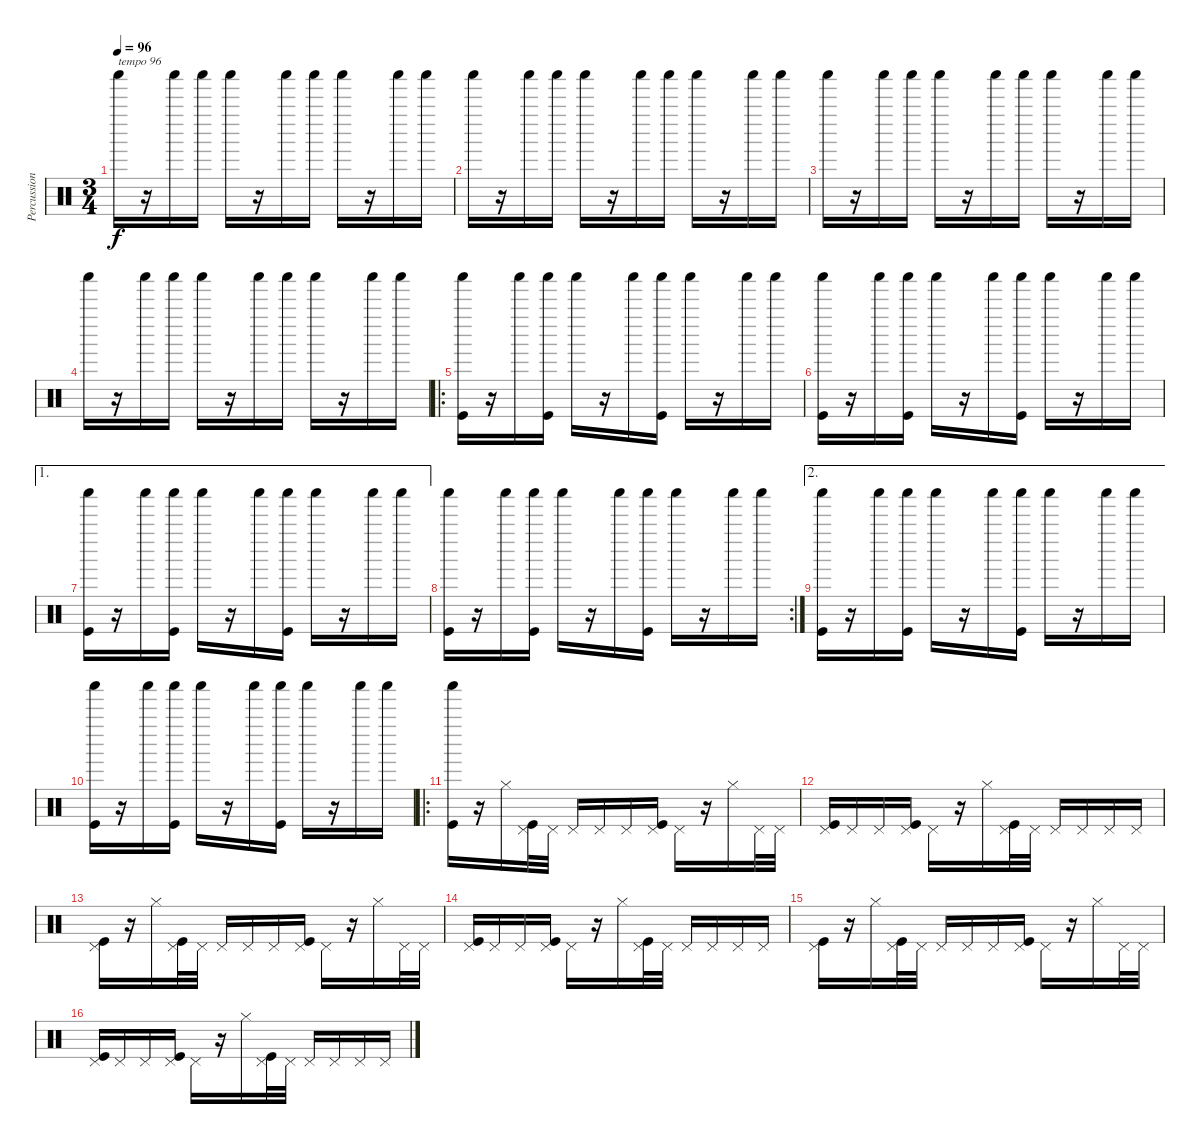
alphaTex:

\track ("Percussions" "Percussion") {instrument percussion}
\staff {score}
\articulation defaults
\ts (3 4)
\tempo 96
\clef neutral
\ks c "Shaker (hit)".16{txt "tempo 96" dy f}
r.16 "Shaker (hit)".16 "Shaker (hit)".16 "Shaker (hit)".16 r.16 "Shaker (hit)".16 "Shaker (hit)".16 "Shaker (hit)".16 r.16 "Shaker (hit)".16 "Shaker (hit)".16 |
"Shaker (hit)".16 r.16 "Shaker (hit)".16 "Shaker (hit)".16 "Shaker (hit)".16 r.16 "Shaker (hit)".16 "Shaker (hit)".16 "Shaker (hit)".16 r.16 "Shaker (hit)".16 "Shaker (hit)".16 |
"Shaker (hit)".16 r.16 "Shaker (hit)".16 "Shaker (hit)".16 "Shaker (hit)".16 r.16 "Shaker (hit)".16 "Shaker (hit)".16 "Shaker (hit)".16 r.16 "Shaker (hit)".16 "Shaker (hit)".16 |
"Shaker (hit)".16 r.16 "Shaker (hit)".16 "Shaker (hit)".16 "Shaker (hit)".16 r.16 "Shaker (hit)".16 "Shaker (hit)".16 "Shaker (hit)".16 r.16 "Shaker (hit)".16 "Shaker (hit)".16 |
\ro
("Shaker (hit)" "Kick (hit)").16 r.16 "Shaker (hit)".16 ("Shaker (hit)" "Kick (hit)").16 "Shaker (hit)".16 r.16 "Shaker (hit)".16 ("Shaker (hit)" "Kick (hit)").16 "Shaker (hit)".16 r.16 "Shaker (hit)".16 "Shaker (hit)".16 |
("Shaker (hit)" "Kick (hit)").16 r.16 "Shaker (hit)".16 ("Shaker (hit)" "Kick (hit)").16 "Shaker (hit)".16 r.16 "Shaker (hit)".16 ("Shaker (hit)" "Kick (hit)").16 "Shaker (hit)".16 r.16 "Shaker (hit)".16 "Shaker (hit)".16 |
\ae 1
("Shaker (hit)" "Kick (hit)").16 r.16 "Shaker (hit)".16 ("Shaker (hit)" "Kick (hit)").16 "Shaker (hit)".16 r.16 "Shaker (hit)".16 ("Shaker (hit)" "Kick (hit)").16 "Shaker (hit)".16 r.16 "Shaker (hit)".16 "Shaker (hit)".16 |
\rc 2
("Shaker (hit)" "Kick (hit)").16 r.16 "Shaker (hit)".16 ("Shaker (hit)" "Kick (hit)").16 "Shaker (hit)".16 r.16 "Shaker (hit)".16 ("Shaker (hit)" "Kick (hit)").16 "Shaker (hit)".16 r.16 "Shaker (hit)".16 "Shaker (hit)".16 |
\ae 2
("Shaker (hit)" "Kick (hit)").16 r.16 "Shaker (hit)".16 ("Shaker (hit)" "Kick (hit)").16 "Shaker (hit)".16 r.16 "Shaker (hit)".16 ("Shaker (hit)" "Kick (hit)").16 "Shaker (hit)".16 r.16 "Shaker (hit)".16 "Shaker (hit)".16 |
("Shaker (hit)" "Kick (hit)").16 r.16 "Shaker (hit)".16 ("Shaker (hit)" "Kick (hit)").16 "Shaker (hit)".16 r.16 "Shaker (hit)".16 ("Shaker (hit)" "Kick (hit)").16 "Shaker (hit)".16 r.16 "Shaker (hit)".16 "Shaker (hit)".16 |
\ro
("Shaker (hit)" "Kick (hit)").16 r.16 "Hi-Hat (closed)".16 ("Pedal Hi-Hat (hit)" "Kick (hit)").32 "Pedal Hi-Hat (hit)".32 "Pedal Hi-Hat (hit)".16 "Pedal Hi-Hat (hit)".16 "Pedal Hi-Hat (hit)".16 ("Pedal Hi-Hat (hit)" "Kick (hit)").16 "Pedal Hi-Hat (hit)".16 r.16 "Hi-Hat (closed)".16 "Pedal Hi-Hat (hit)".32 "Pedal Hi-Hat (hit)".32 |
("Pedal Hi-Hat (hit)" "Kick (hit)").16 "Pedal Hi-Hat (hit)".16 "Pedal Hi-Hat (hit)".16 ("Pedal Hi-Hat (hit)" "Kick (hit)").16 "Pedal Hi-Hat (hit)".16 r.16 "Hi-Hat (closed)".16 ("Pedal Hi-Hat (hit)" "Kick (hit)").32 "Pedal Hi-Hat (hit)".32 "Pedal Hi-Hat (hit)".16 "Pedal Hi-Hat (hit)".16 "Pedal Hi-Hat (hit)".16 "Pedal Hi-Hat (hit)".16 |
("Pedal Hi-Hat (hit)" "Kick (hit)").16 r.16 "Hi-Hat (closed)".16 ("Pedal Hi-Hat (hit)" "Kick (hit)").32 "Pedal Hi-Hat (hit)".32 "Pedal Hi-Hat (hit)".16 "Pedal Hi-Hat (hit)".16 "Pedal Hi-Hat (hit)".16 ("Pedal Hi-Hat (hit)" "Kick (hit)").16 "Pedal Hi-Hat (hit)".16 r.16 "Hi-Hat (closed)".16 "Pedal Hi-Hat (hit)".32 "Pedal Hi-Hat (hit)".32 |
("Pedal Hi-Hat (hit)" "Kick (hit)").16 "Pedal Hi-Hat (hit)".16 "Pedal Hi-Hat (hit)".16 ("Pedal Hi-Hat (hit)" "Kick (hit)").16 "Pedal Hi-Hat (hit)".16 r.16 "Hi-Hat (closed)".16 ("Pedal Hi-Hat (hit)" "Kick (hit)").32 "Pedal Hi-Hat (hit)".32 "Pedal Hi-Hat (hit)".16 "Pedal Hi-Hat (hit)".16 "Pedal Hi-Hat (hit)".16 "Pedal Hi-Hat (hit)".16 |
("Pedal Hi-Hat (hit)" "Kick (hit)").16 r.16 "Hi-Hat (closed)".16 ("Pedal Hi-Hat (hit)" "Kick (hit)").32 "Pedal Hi-Hat (hit)".32 "Pedal Hi-Hat (hit)".16 "Pedal Hi-Hat (hit)".16 "Pedal Hi-Hat (hit)".16 ("Pedal Hi-Hat (hit)" "Kick (hit)").16 "Pedal Hi-Hat (hit)".16 r.16 "Hi-Hat (closed)".16 "Pedal Hi-Hat (hit)".32 "Pedal Hi-Hat (hit)".32 |
("Pedal Hi-Hat (hit)" "Kick (hit)").16 "Pedal Hi-Hat (hit)".16 "Pedal Hi-Hat (hit)".16 ("Pedal Hi-Hat (hit)" "Kick (hit)").16 "Pedal Hi-Hat (hit)".16 r.16 "Hi-Hat (closed)".16 ("Pedal Hi-Hat (hit)" "Kick (hit)").32 "Pedal Hi-Hat (hit)".32 "Pedal Hi-Hat (hit)".16 "Pedal Hi-Hat (hit)".16 "Pedal Hi-Hat (hit)".16 "Pedal Hi-Hat (hit)".16
